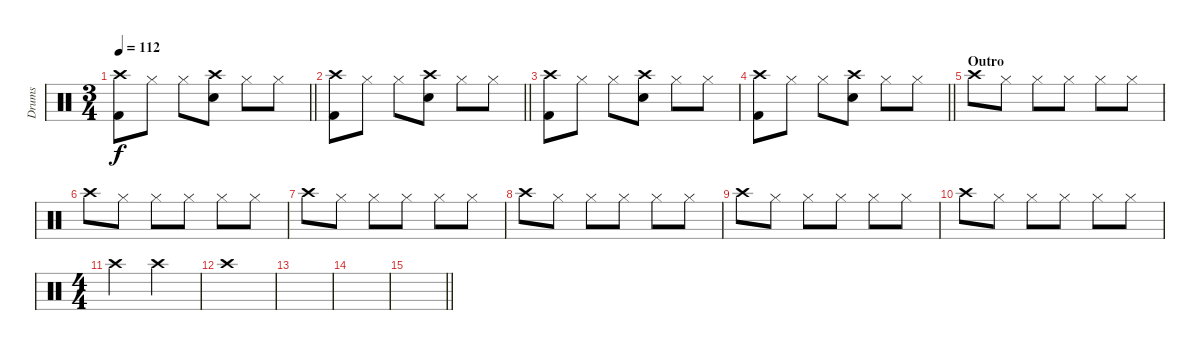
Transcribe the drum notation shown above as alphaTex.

\track ("Drums" "Drums") {instrument percussion}
\staff {score}
\articulation defaults
\ts (3 4)
\tempo 112
\clef neutral
\barLineRight lightlight
\ks c
("Crash high (hit)" "Kick (hit) 2").8{dy f} "Hi-Hat (closed)".8 "Hi-Hat (closed)".8 ("Crash high (hit)" "Snare (hit) 2").8 "Hi-Hat (closed)".8 "Hi-Hat (closed)".8 |
\barLineRight lightlight
("Crash high (hit)" "Kick (hit) 2").8 "Hi-Hat (closed)".8 "Hi-Hat (closed)".8 ("Crash high (hit)" "Snare (hit) 2").8 "Hi-Hat (closed)".8 "Hi-Hat (closed)".8 |
("Crash high (hit)" "Kick (hit) 2").8 "Hi-Hat (closed)".8 "Hi-Hat (closed)".8 ("Crash high (hit)" "Snare (hit) 2").8 "Hi-Hat (closed)".8 "Hi-Hat (closed)".8 |
\barLineRight lightlight
("Crash high (hit)" "Kick (hit) 2").8 "Hi-Hat (closed)".8 "Hi-Hat (closed)".8 ("Crash high (hit)" "Snare (hit) 2").8 "Hi-Hat (closed)".8 "Hi-Hat (closed)".8 |
\section ("" "Outro")
"Crash high (hit)".8 "Hi-Hat (closed)".8 "Hi-Hat (closed)".8 "Hi-Hat (closed)".8 "Hi-Hat (closed)".8 "Hi-Hat (closed)".8 |
"Crash high (hit)".8 "Hi-Hat (closed)".8 "Hi-Hat (closed)".8 "Hi-Hat (closed)".8 "Hi-Hat (closed)".8 "Hi-Hat (closed)".8 |
"Crash high (hit)".8 "Hi-Hat (closed)".8 "Hi-Hat (closed)".8 "Hi-Hat (closed)".8 "Hi-Hat (closed)".8 "Hi-Hat (closed)".8 |
"Crash high (hit)".8 "Hi-Hat (closed)".8 "Hi-Hat (closed)".8 "Hi-Hat (closed)".8 "Hi-Hat (closed)".8 "Hi-Hat (closed)".8 |
"Crash high (hit)".8 "Hi-Hat (closed)".8 "Hi-Hat (closed)".8 "Hi-Hat (closed)".8 "Hi-Hat (closed)".8 "Hi-Hat (closed)".8 |
"Crash high (hit)".8 "Hi-Hat (closed)".8 "Hi-Hat (closed)".8 "Hi-Hat (closed)".8 "Hi-Hat (closed)".8 "Hi-Hat (closed)".8 |
\ts (4 4)
"Crash high (hit)".2 "Crash high (hit)".2 |
"Crash high (hit)".1 |
|
|
\barLineRight lightlight
